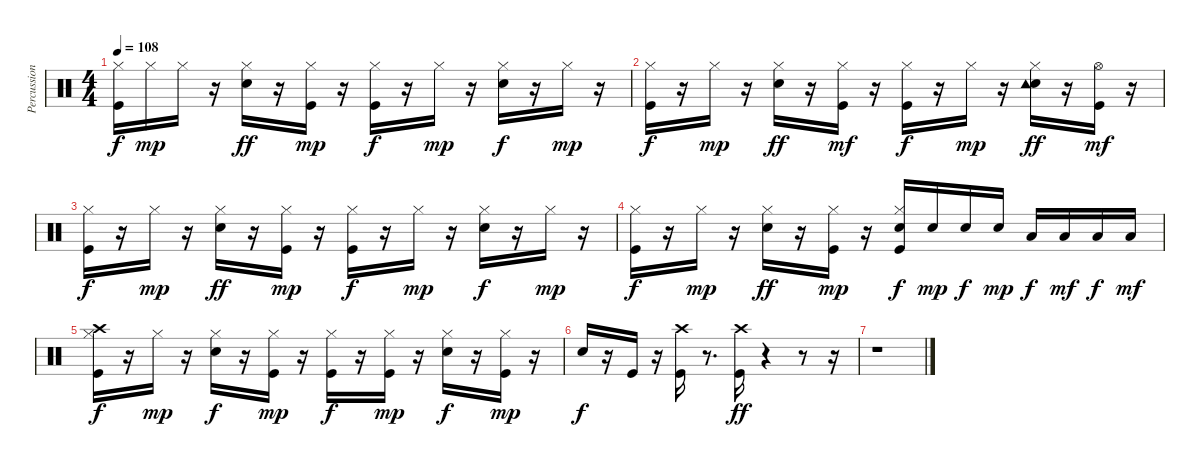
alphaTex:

\track ("Percussion" "Percussion") {instrument percussion}
\staff {score}
\articulation defaults
\ts (4 4)
\tempo 108
\clef neutral
\ks c
("Kick (hit)" "Hi-Hat (closed)").16{dy f} "Hi-Hat (closed)".16{dy mp} "Hi-Hat (closed)".16 r.16 ("Snare (hit) 2" "Hi-Hat (closed)").16{dy ff} r.16 ("Kick (hit)" "Hi-Hat (closed)").16{dy mp} r.16 ("Kick (hit)" "Hi-Hat (closed)").16{dy f} r.16 "Hi-Hat (closed)".16{dy mp} r.16 ("Snare (hit) 2" "Hi-Hat (closed)").16{dy f} r.16 "Hi-Hat (closed)".16{dy mp} r.16 |
("Kick (hit)" "Hi-Hat (closed)").16{dy f} r.16 "Hi-Hat (closed)".16{dy mp} r.16 ("Snare (hit) 2" "Hi-Hat (closed)").16{dy ff} r.16 ("Kick (hit)" "Hi-Hat (closed)").16{dy mf} r.16 ("Kick (hit)" "Hi-Hat (closed)").16{dy f} r.16 "Hi-Hat (closed)".16{dy mp} r.16 ("Snare (hit) 2" "Hi-Hat (closed)" "Tambourine (hit)").16{dy ff} r.16 ("Kick (hit)" "Hi-Hat (open)").16{dy mf} r.16 |
("Kick (hit)" "Hi-Hat (closed)").16{dy f} r.16 "Hi-Hat (closed)".16{dy mp} r.16 ("Snare (hit) 2" "Hi-Hat (closed)").16{dy ff} r.16 ("Kick (hit)" "Hi-Hat (closed)").16{dy mp} r.16 ("Kick (hit)" "Hi-Hat (closed)").16{dy f} r.16 "Hi-Hat (closed)".16{dy mp} r.16 ("Snare (hit) 2" "Hi-Hat (closed)").16{dy f} r.16 "Hi-Hat (closed)".16{dy mp} r.16 |
("Kick (hit)" "Hi-Hat (closed)").16{dy f} r.16 "Hi-Hat (closed)".16{dy mp} r.16 ("Snare (hit) 2" "Hi-Hat (closed)").16{dy ff} r.16 ("Kick (hit)" "Hi-Hat (closed)").16{dy mp} r.16 ("Kick (hit)" "Snare (hit) 2" "Hi-Hat (closed)").16{dy f} "Snare (hit) 2".16{dy mp} "Snare (hit) 2".16{dy f} "Snare (hit) 2".16{dy mp} "Low Tom (hit)".16{dy f} "Low Tom (hit)".16{dy mf} "Low Tom (hit)".16{dy f} "Low Tom (hit)".16{dy mf} |
("Kick (hit)" "Hi-Hat (closed)" "Crash high (hit)").16{dy f} r.16 "Hi-Hat (closed)".16{dy mp} r.16 ("Snare (hit) 2" "Hi-Hat (closed)").16{dy f} r.16 ("Kick (hit)" "Hi-Hat (closed)").16{dy mp} r.16 ("Kick (hit)" "Hi-Hat (closed)").16{dy f} r.16 ("Kick (hit)" "Hi-Hat (closed)").16{dy mp} r.16 ("Snare (hit) 2" "Hi-Hat (closed)").16{dy f} r.16 ("Kick (hit)" "Hi-Hat (closed)").16{dy mp} r.16 |
"Snare (hit) 2".16{dy f} r.16 "Kick (hit)".16 r.16 ("Kick (hit)" "Crash high (hit)").16 r.8{d} ("Kick (hit)" "Crash high (hit)").16{dy ff} r.4 r.8 r.16 |
r.1
